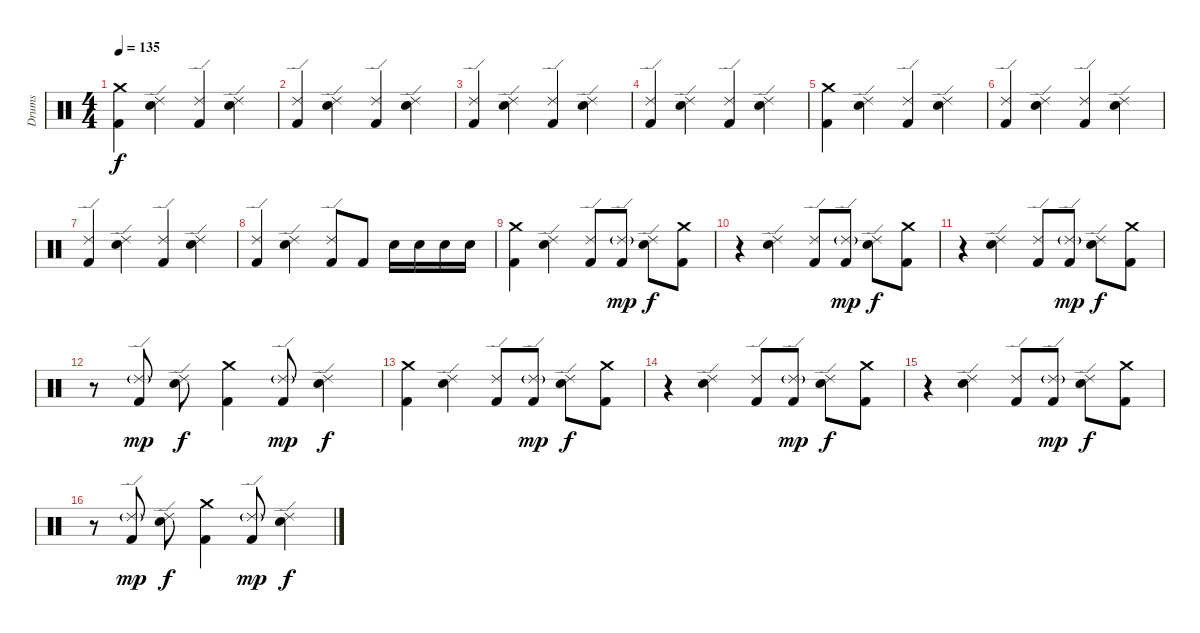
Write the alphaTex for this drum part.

\track ("Drums" "Drums") {instrument percussion}
\staff {score}
\articulation defaults
\ts (4 4)
\tempo 135
\clef neutral
\ks c
("Crash medium (hit)" "Kick (hit) 2").4{dy f} ("Electric Snare (hit)" "Ride (edge) 2").4 ("Ride (edge) 2" "Kick (hit) 2").4 ("Electric Snare (hit)" "Ride (edge) 2").4 |
("Ride (edge) 2" "Kick (hit) 2").4 ("Electric Snare (hit)" "Ride (edge) 2").4 ("Ride (edge) 2" "Kick (hit) 2").4 ("Electric Snare (hit)" "Ride (edge) 2").4 |
("Ride (edge) 2" "Kick (hit) 2").4 ("Electric Snare (hit)" "Ride (edge) 2").4 ("Ride (edge) 2" "Kick (hit) 2").4 ("Electric Snare (hit)" "Ride (edge) 2").4 |
("Ride (edge) 2" "Kick (hit) 2").4 ("Electric Snare (hit)" "Ride (edge) 2").4 ("Ride (edge) 2" "Kick (hit) 2").4 ("Electric Snare (hit)" "Ride (edge) 2").4 |
("Crash medium (hit)" "Kick (hit) 2").4 ("Electric Snare (hit)" "Ride (edge) 2").4 ("Ride (edge) 2" "Kick (hit) 2").4 ("Electric Snare (hit)" "Ride (edge) 2").4 |
("Ride (edge) 2" "Kick (hit) 2").4 ("Electric Snare (hit)" "Ride (edge) 2").4 ("Ride (edge) 2" "Kick (hit) 2").4 ("Electric Snare (hit)" "Ride (edge) 2").4 |
("Ride (edge) 2" "Kick (hit) 2").4 ("Electric Snare (hit)" "Ride (edge) 2").4 ("Ride (edge) 2" "Kick (hit) 2").4 ("Electric Snare (hit)" "Ride (edge) 2").4 |
("Ride (edge) 2" "Kick (hit) 2").4 ("Electric Snare (hit)" "Ride (edge) 2").4 ("Ride (edge) 2" "Kick (hit) 2").8 "Kick (hit) 2".8 "Electric Snare (hit)".16 "Electric Snare (hit)".16 "Electric Snare (hit)".16 "Electric Snare (hit)".16 |
("Crash medium (hit)" "Kick (hit) 2").4 ("Electric Snare (hit)" "Ride (edge) 2").4 ("Ride (edge) 2" "Kick (hit) 2").8 ("Ride (edge) 2"{g} "Kick (hit) 2").8{dy mp} ("Electric Snare (hit)" "Ride (edge) 2").8{dy f} ("Crash medium (hit)" "Kick (hit) 2").8 |
r.4 ("Electric Snare (hit)" "Ride (edge) 2").4 ("Ride (edge) 2" "Kick (hit) 2").8 ("Ride (edge) 2"{g} "Kick (hit) 2").8{dy mp} ("Ride (edge) 2" "Electric Snare (hit)").8{dy f} ("Crash medium (hit)" "Kick (hit) 2").8 |
r.4 ("Electric Snare (hit)" "Ride (edge) 2").4 ("Ride (edge) 2" "Kick (hit) 2").8 ("Ride (edge) 2"{g} "Kick (hit) 2").8{dy mp} ("Ride (edge) 2" "Electric Snare (hit)").8{dy f} ("Crash medium (hit)" "Kick (hit) 2").8 |
r.8 ("Ride (edge) 2"{g} "Kick (hit) 2").8{dy mp} ("Ride (edge) 2" "Electric Snare (hit)").8{dy f} ("Kick (hit) 2" "Crash medium (hit)").4 ("Ride (edge) 2"{g} "Kick (hit) 2").8{dy mp} ("Ride (edge) 2" "Electric Snare (hit)").4{dy f} |
("Crash medium (hit)" "Kick (hit) 2").4 ("Electric Snare (hit)" "Ride (edge) 2").4 ("Ride (edge) 2" "Kick (hit) 2").8 ("Ride (edge) 2"{g} "Kick (hit) 2").8{dy mp} ("Electric Snare (hit)" "Ride (edge) 2").8{dy f} ("Crash medium (hit)" "Kick (hit) 2").8 |
r.4 ("Electric Snare (hit)" "Ride (edge) 2").4 ("Ride (edge) 2" "Kick (hit) 2").8 ("Ride (edge) 2"{g} "Kick (hit) 2").8{dy mp} ("Ride (edge) 2" "Electric Snare (hit)").8{dy f} ("Crash medium (hit)" "Kick (hit) 2").8 |
r.4 ("Electric Snare (hit)" "Ride (edge) 2").4 ("Ride (edge) 2" "Kick (hit) 2").8 ("Ride (edge) 2"{g} "Kick (hit) 2").8{dy mp} ("Ride (edge) 2" "Electric Snare (hit)").8{dy f} ("Crash medium (hit)" "Kick (hit) 2").8 |
r.8 ("Ride (edge) 2"{g} "Kick (hit) 2").8{dy mp} ("Ride (edge) 2" "Electric Snare (hit)").8{dy f} ("Kick (hit) 2" "Crash medium (hit)").4 ("Ride (edge) 2"{g} "Kick (hit) 2").8{dy mp} ("Ride (edge) 2" "Electric Snare (hit)").4{dy f}
